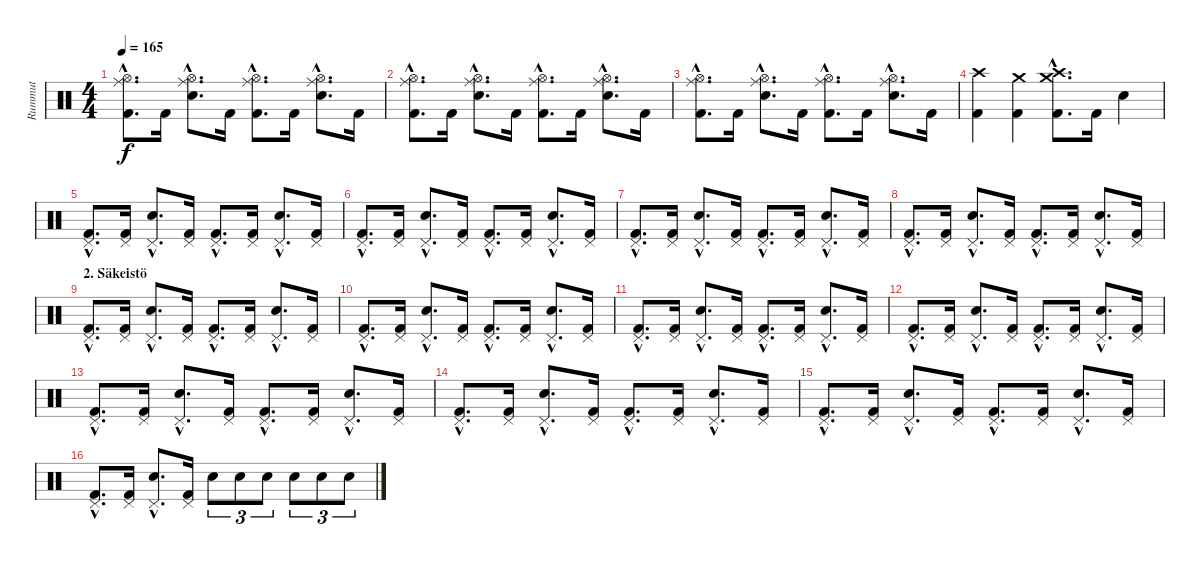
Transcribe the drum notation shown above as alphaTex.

\track ("Rummut" "Rummut") {instrument percussion}
\staff {score}
\articulation defaults
\ts (4 4)
\tempo 165
\clef neutral
\ks c
("Hi-Hat (open)"{hac} "Ride (middle)"{hac} "Kick (hit) 2"{hac}).8{d dy f} "Kick (hit) 2".16 ("Hi-Hat (open)"{hac} "Snare (hit) 2"{hac} "Ride (middle)"{hac}).8{d} "Kick (hit) 2".16 ("Hi-Hat (open)"{hac} "Ride (middle)"{hac} "Kick (hit) 2"{hac}).8{d} "Kick (hit) 2".16 ("Hi-Hat (open)"{hac} "Snare (hit) 2"{hac} "Ride (middle)"{hac}).8{d} "Kick (hit) 2".16 |
("Hi-Hat (open)"{hac} "Ride (middle)"{hac} "Kick (hit) 2"{hac}).8{d} "Kick (hit) 2".16 ("Hi-Hat (open)"{hac} "Snare (hit) 2"{hac} "Ride (middle)"{hac}).8{d} "Kick (hit) 2".16 ("Hi-Hat (open)"{hac} "Ride (middle)"{hac} "Kick (hit) 2"{hac}).8{d} "Kick (hit) 2".16 ("Hi-Hat (open)"{hac} "Snare (hit) 2"{hac} "Ride (middle)"{hac}).8{d} "Kick (hit) 2".16 |
("Hi-Hat (open)"{hac} "Ride (middle)"{hac} "Kick (hit) 2"{hac}).8{d} "Kick (hit) 2".16 ("Hi-Hat (open)"{hac} "Snare (hit) 2"{hac} "Ride (middle)"{hac}).8{d} "Kick (hit) 2".16 ("Hi-Hat (open)"{hac} "Ride (middle)"{hac} "Kick (hit) 2"{hac}).8{d} "Kick (hit) 2".16 ("Hi-Hat (open)"{hac} "Snare (hit) 2"{hac} "Ride (middle)"{hac}).8{d} "Kick (hit) 2".16 |
("Crash high (hit)" "Kick (hit) 2").4 ("Crash medium (hit)" "Kick (hit) 2").4 ("Crash medium (hit)"{hac} "Crash high (hit)"{hac} "Kick (hit) 2"{hac}).8{d} "Kick (hit) 2".16 "Snare (hit) 2".4 |
("Pedal Hi-Hat (hit)"{hac} "Kick (hit) 2"{hac}).8{d} ("Pedal Hi-Hat (hit)" "Kick (hit) 2").16 ("Pedal Hi-Hat (hit)"{hac} "Snare (hit) 2"{hac}).8{d} ("Pedal Hi-Hat (hit)" "Kick (hit) 2").16 ("Pedal Hi-Hat (hit)"{hac} "Kick (hit) 2"{hac}).8{d} ("Pedal Hi-Hat (hit)" "Kick (hit) 2").16 ("Pedal Hi-Hat (hit)"{hac} "Snare (hit) 2"{hac}).8{d} ("Pedal Hi-Hat (hit)" "Kick (hit) 2").16 |
("Pedal Hi-Hat (hit)"{hac} "Kick (hit) 2"{hac}).8{d} ("Pedal Hi-Hat (hit)" "Kick (hit) 2").16 ("Pedal Hi-Hat (hit)"{hac} "Snare (hit) 2"{hac}).8{d} ("Pedal Hi-Hat (hit)" "Kick (hit) 2").16 ("Pedal Hi-Hat (hit)"{hac} "Kick (hit) 2"{hac}).8{d} ("Pedal Hi-Hat (hit)" "Kick (hit) 2").16 ("Pedal Hi-Hat (hit)"{hac} "Snare (hit) 2"{hac}).8{d} ("Pedal Hi-Hat (hit)" "Kick (hit) 2").16 |
("Pedal Hi-Hat (hit)"{hac} "Kick (hit) 2"{hac}).8{d} ("Pedal Hi-Hat (hit)" "Kick (hit) 2").16 ("Pedal Hi-Hat (hit)"{hac} "Snare (hit) 2"{hac}).8{d} ("Pedal Hi-Hat (hit)" "Kick (hit) 2").16 ("Pedal Hi-Hat (hit)"{hac} "Kick (hit) 2"{hac}).8{d} ("Pedal Hi-Hat (hit)" "Kick (hit) 2").16 ("Pedal Hi-Hat (hit)"{hac} "Snare (hit) 2"{hac}).8{d} ("Pedal Hi-Hat (hit)" "Kick (hit) 2").16 |
("Pedal Hi-Hat (hit)"{hac} "Kick (hit) 2"{hac}).8{d} ("Pedal Hi-Hat (hit)" "Kick (hit) 2").16 ("Pedal Hi-Hat (hit)"{hac} "Snare (hit) 2"{hac}).8{d} ("Pedal Hi-Hat (hit)" "Kick (hit) 2").16 ("Pedal Hi-Hat (hit)"{hac} "Kick (hit) 2"{hac}).8{d} ("Pedal Hi-Hat (hit)" "Kick (hit) 2").16 ("Pedal Hi-Hat (hit)"{hac} "Snare (hit) 2"{hac}).8{d} ("Pedal Hi-Hat (hit)" "Kick (hit) 2").16 |
\section ("" "2. Säkeistö")
("Pedal Hi-Hat (hit)"{hac} "Kick (hit) 2"{hac}).8{d} ("Pedal Hi-Hat (hit)" "Kick (hit) 2").16 ("Pedal Hi-Hat (hit)"{hac} "Snare (hit) 2"{hac}).8{d} ("Pedal Hi-Hat (hit)" "Kick (hit) 2").16 ("Pedal Hi-Hat (hit)"{hac} "Kick (hit) 2"{hac}).8{d} ("Pedal Hi-Hat (hit)" "Kick (hit) 2").16 ("Pedal Hi-Hat (hit)"{hac} "Snare (hit) 2"{hac}).8{d} ("Pedal Hi-Hat (hit)" "Kick (hit) 2").16 |
("Pedal Hi-Hat (hit)"{hac} "Kick (hit) 2"{hac}).8{d} ("Pedal Hi-Hat (hit)" "Kick (hit) 2").16 ("Pedal Hi-Hat (hit)"{hac} "Snare (hit) 2"{hac}).8{d} ("Pedal Hi-Hat (hit)" "Kick (hit) 2").16 ("Pedal Hi-Hat (hit)"{hac} "Kick (hit) 2"{hac}).8{d} ("Pedal Hi-Hat (hit)" "Kick (hit) 2").16 ("Pedal Hi-Hat (hit)"{hac} "Snare (hit) 2"{hac}).8{d} ("Pedal Hi-Hat (hit)" "Kick (hit) 2").16 |
("Pedal Hi-Hat (hit)"{hac} "Kick (hit) 2"{hac}).8{d} ("Pedal Hi-Hat (hit)" "Kick (hit) 2").16 ("Pedal Hi-Hat (hit)"{hac} "Snare (hit) 2"{hac}).8{d} ("Pedal Hi-Hat (hit)" "Kick (hit) 2").16 ("Pedal Hi-Hat (hit)"{hac} "Kick (hit) 2"{hac}).8{d} ("Pedal Hi-Hat (hit)" "Kick (hit) 2").16 ("Pedal Hi-Hat (hit)"{hac} "Snare (hit) 2"{hac}).8{d} ("Pedal Hi-Hat (hit)" "Kick (hit) 2").16 |
("Pedal Hi-Hat (hit)"{hac} "Kick (hit) 2"{hac}).8{d} ("Pedal Hi-Hat (hit)" "Kick (hit) 2").16 ("Pedal Hi-Hat (hit)"{hac} "Snare (hit) 2"{hac}).8{d} ("Pedal Hi-Hat (hit)" "Kick (hit) 2").16 ("Pedal Hi-Hat (hit)"{hac} "Kick (hit) 2"{hac}).8{d} ("Pedal Hi-Hat (hit)" "Kick (hit) 2").16 ("Pedal Hi-Hat (hit)"{hac} "Snare (hit) 2"{hac}).8{d} ("Pedal Hi-Hat (hit)" "Kick (hit) 2").16 |
("Pedal Hi-Hat (hit)"{hac} "Kick (hit) 2"{hac}).8{d} ("Pedal Hi-Hat (hit)" "Kick (hit) 2").16 ("Pedal Hi-Hat (hit)"{hac} "Snare (hit) 2"{hac}).8{d} ("Pedal Hi-Hat (hit)" "Kick (hit) 2").16 ("Pedal Hi-Hat (hit)"{hac} "Kick (hit) 2"{hac}).8{d} ("Pedal Hi-Hat (hit)" "Kick (hit) 2").16 ("Pedal Hi-Hat (hit)"{hac} "Snare (hit) 2"{hac}).8{d} ("Pedal Hi-Hat (hit)" "Kick (hit) 2").16 |
("Pedal Hi-Hat (hit)"{hac} "Kick (hit) 2"{hac}).8{d} ("Pedal Hi-Hat (hit)" "Kick (hit) 2").16 ("Pedal Hi-Hat (hit)"{hac} "Snare (hit) 2"{hac}).8{d} ("Pedal Hi-Hat (hit)" "Kick (hit) 2").16 ("Pedal Hi-Hat (hit)"{hac} "Kick (hit) 2"{hac}).8{d} ("Pedal Hi-Hat (hit)" "Kick (hit) 2").16 ("Pedal Hi-Hat (hit)"{hac} "Snare (hit) 2"{hac}).8{d} ("Pedal Hi-Hat (hit)" "Kick (hit) 2").16 |
("Pedal Hi-Hat (hit)"{hac} "Kick (hit) 2"{hac}).8{d} ("Pedal Hi-Hat (hit)" "Kick (hit) 2").16 ("Pedal Hi-Hat (hit)"{hac} "Snare (hit) 2"{hac}).8{d} ("Pedal Hi-Hat (hit)" "Kick (hit) 2").16 ("Pedal Hi-Hat (hit)"{hac} "Kick (hit) 2"{hac}).8{d} ("Pedal Hi-Hat (hit)" "Kick (hit) 2").16 ("Pedal Hi-Hat (hit)"{hac} "Snare (hit) 2"{hac}).8{d} ("Pedal Hi-Hat (hit)" "Kick (hit) 2").16 |
("Pedal Hi-Hat (hit)"{hac} "Kick (hit) 2"{hac}).8{d} ("Pedal Hi-Hat (hit)" "Kick (hit) 2").16 ("Pedal Hi-Hat (hit)"{hac} "Snare (hit) 2"{hac}).8{d} ("Pedal Hi-Hat (hit)" "Kick (hit) 2").16 "Snare (hit) 2".8{tu (3 2)} "Snare (hit) 2".8{tu (3 2)} "Snare (hit) 2".8{tu (3 2)} "Snare (hit) 2".8{tu (3 2)} "Snare (hit) 2".8{tu (3 2)} "Snare (hit) 2".8{tu (3 2)}
